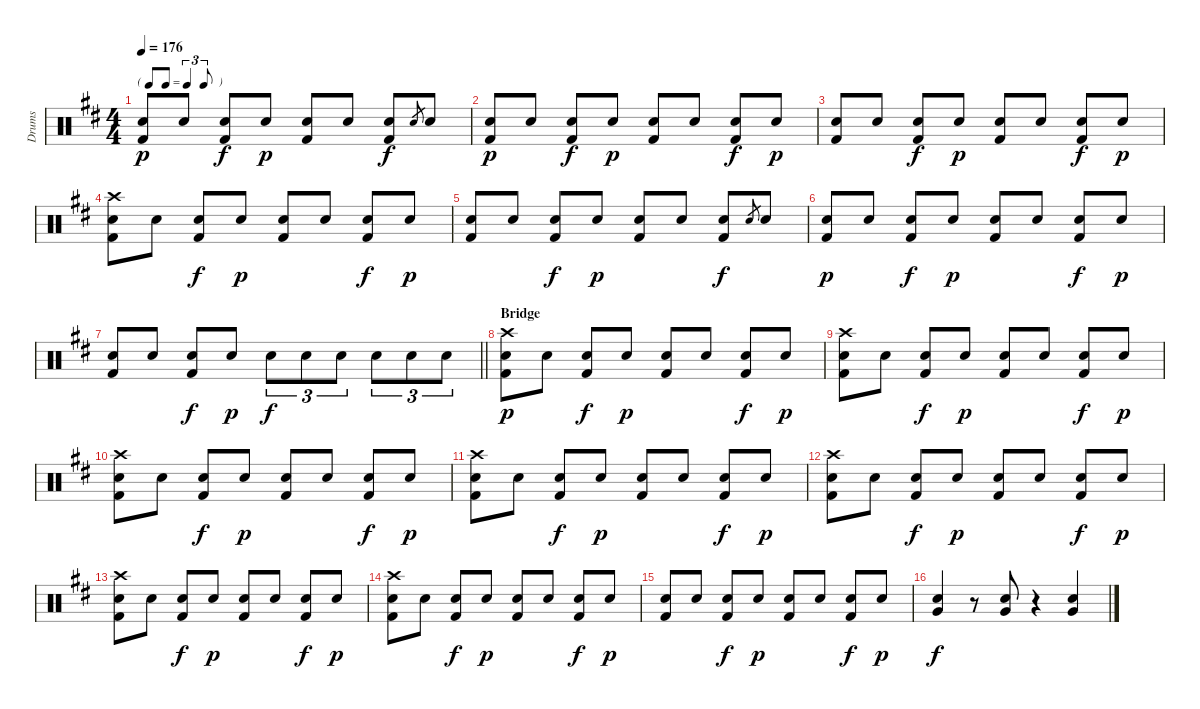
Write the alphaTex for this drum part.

\track ("Drums" "Drums") {instrument percussion}
\staff {score}
\articulation defaults
\ts (4 4)
\tf triplet8th
\tempo 176
\clef neutral
\ks d
("Snare (hit) 2" "Kick (hit) 2").8{dy p} "Snare (hit) 2".8 ("Snare (hit) 2" "Kick (hit) 2").8{dy f} "Snare (hit) 2".8{dy p} ("Snare (hit) 2" "Kick (hit) 2").8 "Snare (hit) 2".8 ("Snare (hit) 2" "Kick (hit) 2").8{dy f} "Snare (hit) 2".8{gr} "Snare (hit) 2".8 |
("Snare (hit) 2" "Kick (hit) 2").8{dy p} "Snare (hit) 2".8 ("Snare (hit) 2" "Kick (hit) 2").8{dy f} "Snare (hit) 2".8{dy p} ("Snare (hit) 2" "Kick (hit) 2").8 "Snare (hit) 2".8 ("Snare (hit) 2" "Kick (hit) 2").8{dy f} "Snare (hit) 2".8{dy p} |
("Snare (hit) 2" "Kick (hit) 2").8 "Snare (hit) 2".8 ("Snare (hit) 2" "Kick (hit) 2").8{dy f} "Snare (hit) 2".8{dy p} ("Snare (hit) 2" "Kick (hit) 2").8 "Snare (hit) 2".8 ("Snare (hit) 2" "Kick (hit) 2").8{dy f} "Snare (hit) 2".8{dy p} |
("Crash high (hit)" "Snare (hit) 2" "Kick (hit) 2").8 "Snare (hit) 2".8 ("Snare (hit) 2" "Kick (hit) 2").8{dy f} "Snare (hit) 2".8{dy p} ("Snare (hit) 2" "Kick (hit) 2").8 "Snare (hit) 2".8 ("Snare (hit) 2" "Kick (hit) 2").8{dy f} "Snare (hit) 2".8{dy p} |
("Snare (hit) 2" "Kick (hit) 2").8 "Snare (hit) 2".8 ("Snare (hit) 2" "Kick (hit) 2").8{dy f} "Snare (hit) 2".8{dy p} ("Snare (hit) 2" "Kick (hit) 2").8 "Snare (hit) 2".8 ("Snare (hit) 2" "Kick (hit) 2").8{dy f} "Snare (hit) 2".8{gr} "Snare (hit) 2".8 |
("Snare (hit) 2" "Kick (hit) 2").8{dy p} "Snare (hit) 2".8 ("Snare (hit) 2" "Kick (hit) 2").8{dy f} "Snare (hit) 2".8{dy p} ("Snare (hit) 2" "Kick (hit) 2").8 "Snare (hit) 2".8 ("Snare (hit) 2" "Kick (hit) 2").8{dy f} "Snare (hit) 2".8{dy p} |
\barLineRight lightlight
("Snare (hit) 2" "Kick (hit) 2").8 "Snare (hit) 2".8 ("Snare (hit) 2" "Kick (hit) 2").8{dy f} "Snare (hit) 2".8{dy p} "Snare (hit) 2".8{tu (3 2) dy f} "Snare (hit) 2".8{tu (3 2)} "Snare (hit) 2".8{tu (3 2)} "Snare (hit) 2".8{tu (3 2)} "Snare (hit) 2".8{tu (3 2)} "Snare (hit) 2".8{tu (3 2)} |
\section ("" "Bridge")
("Crash high (hit)" "Snare (hit) 2" "Kick (hit) 2").8{dy p} "Snare (hit) 2".8 ("Snare (hit) 2" "Kick (hit) 2").8{dy f} "Snare (hit) 2".8{dy p} ("Snare (hit) 2" "Kick (hit) 2").8 "Snare (hit) 2".8 ("Snare (hit) 2" "Kick (hit) 2").8{dy f} "Snare (hit) 2".8{dy p} |
("Crash high (hit)" "Snare (hit) 2" "Kick (hit) 2").8 "Snare (hit) 2".8 ("Snare (hit) 2" "Kick (hit) 2").8{dy f} "Snare (hit) 2".8{dy p} ("Snare (hit) 2" "Kick (hit) 2").8 "Snare (hit) 2".8 ("Snare (hit) 2" "Kick (hit) 2").8{dy f} "Snare (hit) 2".8{dy p} |
("Crash high (hit)" "Snare (hit) 2" "Kick (hit) 2").8 "Snare (hit) 2".8 ("Snare (hit) 2" "Kick (hit) 2").8{dy f} "Snare (hit) 2".8{dy p} ("Snare (hit) 2" "Kick (hit) 2").8 "Snare (hit) 2".8 ("Snare (hit) 2" "Kick (hit) 2").8{dy f} "Snare (hit) 2".8{dy p} |
("Crash high (hit)" "Snare (hit) 2" "Kick (hit) 2").8 "Snare (hit) 2".8 ("Snare (hit) 2" "Kick (hit) 2").8{dy f} "Snare (hit) 2".8{dy p} ("Snare (hit) 2" "Kick (hit) 2").8 "Snare (hit) 2".8 ("Snare (hit) 2" "Kick (hit) 2").8{dy f} "Snare (hit) 2".8{dy p} |
("Crash high (hit)" "Snare (hit) 2" "Kick (hit) 2").8 "Snare (hit) 2".8 ("Snare (hit) 2" "Kick (hit) 2").8{dy f} "Snare (hit) 2".8{dy p} ("Snare (hit) 2" "Kick (hit) 2").8 "Snare (hit) 2".8 ("Snare (hit) 2" "Kick (hit) 2").8{dy f} "Snare (hit) 2".8{dy p} |
("Crash high (hit)" "Snare (hit) 2" "Kick (hit) 2").8 "Snare (hit) 2".8 ("Snare (hit) 2" "Kick (hit) 2").8{dy f} "Snare (hit) 2".8{dy p} ("Snare (hit) 2" "Kick (hit) 2").8 "Snare (hit) 2".8 ("Snare (hit) 2" "Kick (hit) 2").8{dy f} "Snare (hit) 2".8{dy p} |
("Crash high (hit)" "Snare (hit) 2" "Kick (hit) 2").8 "Snare (hit) 2".8 ("Snare (hit) 2" "Kick (hit) 2").8{dy f} "Snare (hit) 2".8{dy p} ("Snare (hit) 2" "Kick (hit) 2").8 "Snare (hit) 2".8 ("Snare (hit) 2" "Kick (hit) 2").8{dy f} "Snare (hit) 2".8{dy p} |
("Snare (hit) 2" "Kick (hit) 2").8 "Snare (hit) 2".8 ("Snare (hit) 2" "Kick (hit) 2").8{dy f} "Snare (hit) 2".8{dy p} ("Snare (hit) 2" "Kick (hit) 2").8 "Snare (hit) 2".8 ("Snare (hit) 2" "Kick (hit) 2").8{dy f} "Snare (hit) 2".8{dy p} |
("Snare (hit) 2" "Very Low Tom (hit)").4{dy f} r.8 ("Snare (hit) 2" "Very Low Tom (hit)").8 r.4 ("Snare (hit) 2" "Very Low Tom (hit)").4
